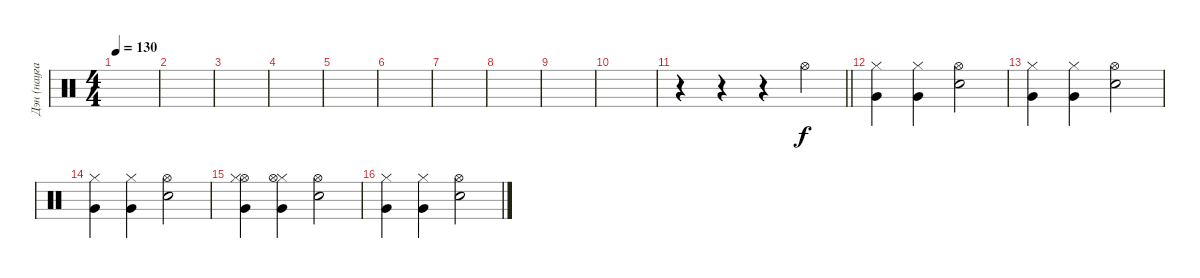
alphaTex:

\track ("Дэн (наугад))" "Дэн (науга") {instrument percussion}
\staff {score}
\articulation defaults
\ts (4 4)
\tempo 130
\clef neutral
\ks c
|
|
|
|
|
|
|
|
|
|
\barLineRight lightlight
r.4 r.4 r.4 "Hi-Hat (open)".4 |
("Hi-Hat (closed)" "Very Low Tom (hit)").4 ("Very Low Tom (hit)" "Hi-Hat (closed)").4 ("Snare (hit) 2" "Hi-Hat (open)").2 |
("Hi-Hat (closed)" "Very Low Tom (hit)").4 ("Very Low Tom (hit)" "Hi-Hat (closed)").4 ("Snare (hit) 2" "Hi-Hat (open)").2 |
("Hi-Hat (closed)" "Very Low Tom (hit)").4 ("Very Low Tom (hit)" "Hi-Hat (closed)").4 ("Snare (hit) 2" "Hi-Hat (open)").2 |
("Hi-Hat (open)" "Hi-Hat (closed)" "Very Low Tom (hit)").4 ("Very Low Tom (hit)" "Hi-Hat (closed)" "Hi-Hat (open)").4 ("Snare (hit) 2" "Hi-Hat (open)").2 |
("Hi-Hat (closed)" "Very Low Tom (hit)").4 ("Very Low Tom (hit)" "Hi-Hat (closed)").4 ("Snare (hit) 2" "Hi-Hat (open)").2
